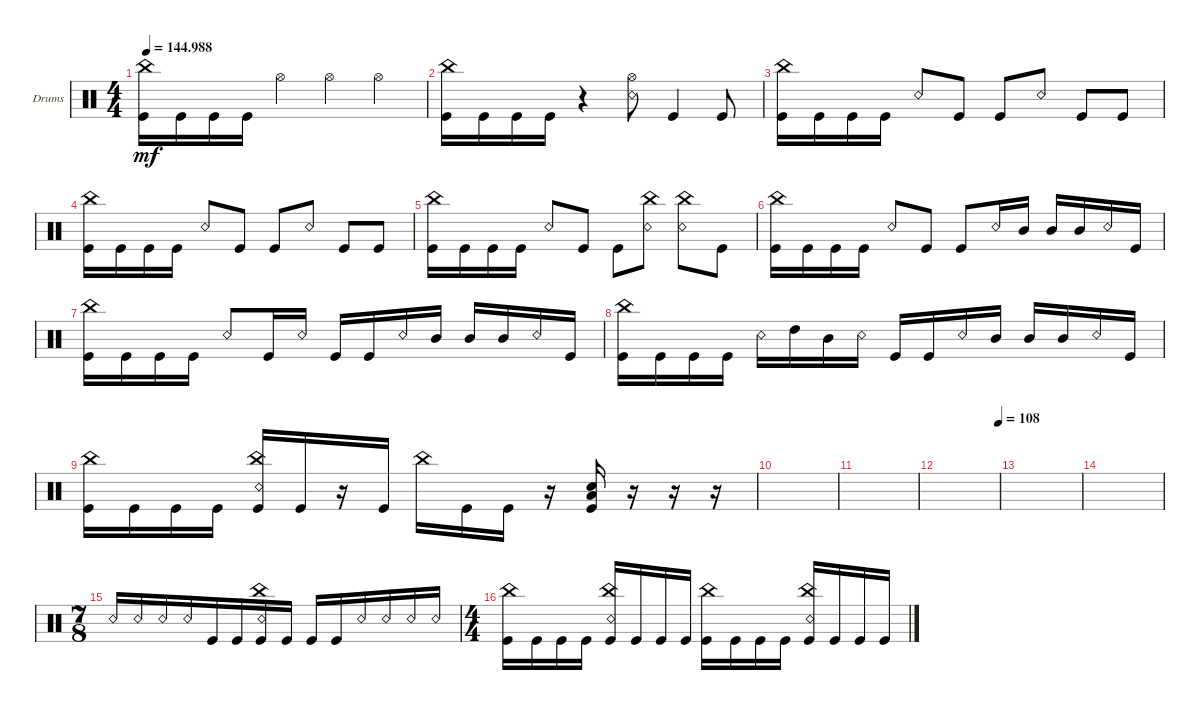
\defaultSystemsLayout 4
\bracketExtendMode groupsimilarinstruments
\firstSystemTrackNameOrientation horizontal
\otherSystemsTrackNameOrientation horizontal
\track ("Drumkit" "Drums") {instrument percussion}
\staff {score}
\articulation defaults
\ts (4 4)
\tempo
144.988
\accidentals auto
\clef neutral
\ottava regular
\simile none
\ks c
("Kick (hit)" "China (hit)").16{dy mf} "Kick (hit)".16 "Kick (hit)".16 "Kick (hit)".16 "Hi-Hat (open)".4 "Hi-Hat (open)".4 "Hi-Hat (open)".4 |
("Kick (hit)" "China (hit)").16 "Kick (hit)".16 "Kick (hit)".16 "Kick (hit)".16 r.4 ("Hi-Hat (open)" "Snare (rim shot)").8 "Kick (hit)".4 "Kick (hit)".8 |
("Kick (hit)" "China (hit)").16 "Kick (hit)".16 "Kick (hit)".16 "Kick (hit)".16 "Snare (rim shot)".8 "Kick (hit)".8 "Kick (hit)".8 "Snare (rim shot)".8 "Kick (hit)".8 "Kick (hit)".8 |
("Kick (hit)" "China (hit)").16 "Kick (hit)".16 "Kick (hit)".16 "Kick (hit)".16 "Snare (rim shot)".8 "Kick (hit)".8 "Kick (hit)".8 "Snare (rim shot)".8 "Kick (hit)".8 "Kick (hit)".8 |
("Kick (hit)" "China (hit)").16 "Kick (hit)".16 "Kick (hit)".16 "Kick (hit)".16 "Snare (rim shot)".8 "Kick (hit)".8 "Kick (hit)".8 ("Snare (rim shot)" "China (hit)").8 ("China (hit)" "Snare (rim shot)").8 "Kick (hit)".8 |
("Kick (hit)" "China (hit)").16 "Kick (hit)".16 "Kick (hit)".16 "Kick (hit)".16 "Snare (rim shot)".8 "Kick (hit)".8 "Kick (hit)".8 "Snare (rim shot)".16 "Mid Tom (hit)".16 "Mid Tom (hit)".16 "Mid Tom (hit)".16 "Snare (rim shot)".16 "Kick (hit)".16 |
("Kick (hit)" "China (hit)").16 "Kick (hit)".16 "Kick (hit)".16 "Kick (hit)".16 "Snare (rim shot)".8 "Kick (hit)".16 "Snare (rim shot)".16 "Kick (hit)".16 "Kick (hit)".16 "Snare (rim shot)".16 "Mid Tom (hit)".16 "Mid Tom (hit)".16 "Mid Tom (hit)".16 "Snare (rim shot)".16 "Kick (hit)".16 |
("Kick (hit)" "China (hit)").16 "Kick (hit)".16 "Kick (hit)".16 "Kick (hit)".16 "Snare (rim shot)".16 "High Tom (hit)".16 "Mid Tom (hit)".16 "Snare (rim shot)".16 "Kick (hit)".16 "Kick (hit)".16 "Snare (rim shot)".16 "Mid Tom (hit)".16 "Mid Tom (hit)".16 "Mid Tom (hit)".16 "Snare (rim shot)".16 "Kick (hit)".16 |
("Kick (hit)" "China (hit)").16 "Kick (hit)".16 "Kick (hit)".16 "Kick (hit)".16 ("Kick (hit)" "China (hit)" "Snare (rim shot)").16 "Kick (hit)".16 r.16 "Kick (hit)".16 "China (hit)".16 "Kick (hit)".16 "Kick (hit)".16 r.16 ("Kick (hit)" "Low Tom (hit)" "Snare (hit) 2").16 r.16 r.16 r.16 |
|
|
\tempo (108 1)
|
|
|
\ts (7 8)
"Snare (rim shot)".16 "Snare (rim shot)".16 "Snare (rim shot)".16 "Snare (rim shot)".16 "Kick (hit)".16 "Kick (hit)".16 ("Kick (hit)" "Snare (rim shot)" "China (hit)").16 "Kick (hit)".16 "Kick (hit)".16 "Kick (hit)".16 "Snare (rim shot)".16 "Snare (rim shot)".16 "Snare (rim shot)".16 "Snare (rim shot)".16 |
\ts (4 4)
("Kick (hit)" "China (hit)").16 "Kick (hit)".16 "Kick (hit)".16 "Kick (hit)".16 ("Kick (hit)" "China (hit)" "Snare (rim shot)").16 "Kick (hit)".16 "Kick (hit)".16 "Kick (hit)".16 ("Kick (hit)" "China (hit)").16 "Kick (hit)".16 "Kick (hit)".16 "Kick (hit)".16 ("Kick (hit)" "China (hit)" "Snare (rim shot)").16 "Kick (hit)".16 "Kick (hit)".16 "Kick (hit)".16
